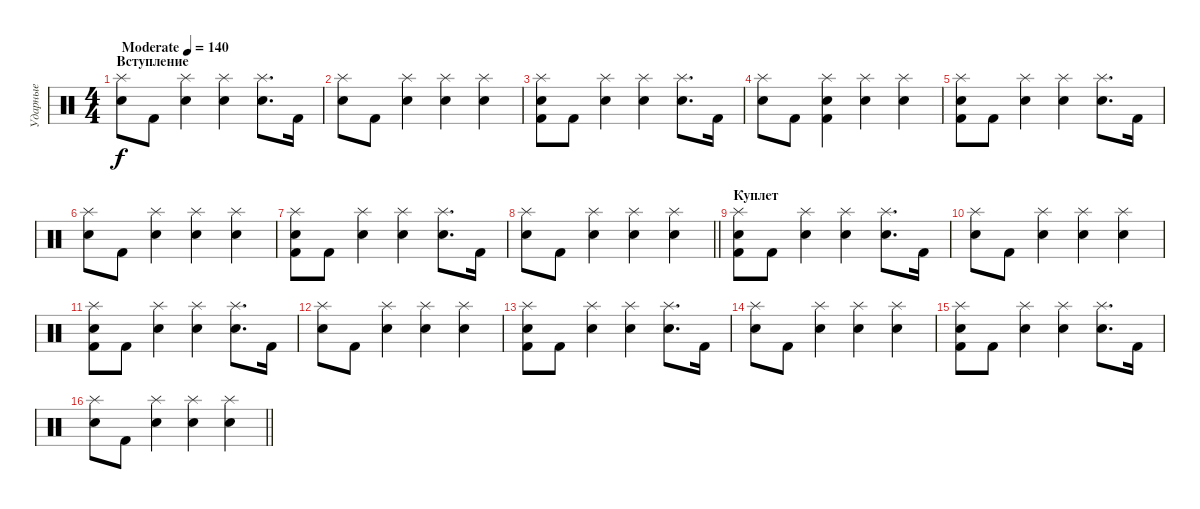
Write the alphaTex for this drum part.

\track ("Ударные" "Ударные") {instrument percussion}
\staff {score}
\articulation defaults
\ts (4 4)
\section ("" "Вступление")
\tempo (140 "Moderate")
\clef neutral
\ks c
("Splash (hit)" "Electric Snare (hit)").8{dy f} "Kick (hit) 2".8 ("Splash (hit)" "Electric Snare (hit)").4 ("Splash (hit)" "Electric Snare (hit)").4 ("Splash (hit)" "Electric Snare (hit)").8{d} "Kick (hit) 2".16 |
("Splash (hit)" "Electric Snare (hit)").8 "Kick (hit) 2".8 ("Splash (hit)" "Electric Snare (hit)").4 ("Splash (hit)" "Electric Snare (hit)").4 ("Splash (hit)" "Electric Snare (hit)").4 |
("Splash (hit)" "Electric Snare (hit)" "Kick (hit) 2").8 "Kick (hit) 2".8 ("Splash (hit)" "Electric Snare (hit)").4 ("Splash (hit)" "Electric Snare (hit)").4 ("Splash (hit)" "Electric Snare (hit)").8{d} "Kick (hit) 2".16 |
("Splash (hit)" "Electric Snare (hit)").8 "Kick (hit) 2".8 ("Splash (hit)" "Electric Snare (hit)" "Kick (hit) 2").4 ("Splash (hit)" "Electric Snare (hit)").4 ("Splash (hit)" "Electric Snare (hit)").4 |
("Splash (hit)" "Electric Snare (hit)" "Kick (hit) 2").8 "Kick (hit) 2".8 ("Splash (hit)" "Electric Snare (hit)").4 ("Splash (hit)" "Electric Snare (hit)").4 ("Splash (hit)" "Electric Snare (hit)").8{d} "Kick (hit) 2".16 |
("Splash (hit)" "Electric Snare (hit)").8 "Kick (hit) 2".8 ("Splash (hit)" "Electric Snare (hit)").4 ("Splash (hit)" "Electric Snare (hit)").4 ("Splash (hit)" "Electric Snare (hit)").4 |
("Splash (hit)" "Electric Snare (hit)" "Kick (hit) 2").8 "Kick (hit) 2".8 ("Splash (hit)" "Electric Snare (hit)").4 ("Splash (hit)" "Electric Snare (hit)").4 ("Splash (hit)" "Electric Snare (hit)").8{d} "Kick (hit) 2".16 |
\barLineRight lightlight
("Splash (hit)" "Electric Snare (hit)").8 "Kick (hit) 2".8 ("Splash (hit)" "Electric Snare (hit)").4 ("Splash (hit)" "Electric Snare (hit)").4 ("Splash (hit)" "Electric Snare (hit)").4 |
\section ("" "Куплет")
("Splash (hit)" "Electric Snare (hit)" "Kick (hit) 2").8 "Kick (hit) 2".8 ("Splash (hit)" "Electric Snare (hit)").4 ("Splash (hit)" "Electric Snare (hit)").4 ("Splash (hit)" "Electric Snare (hit)").8{d} "Kick (hit) 2".16 |
("Splash (hit)" "Electric Snare (hit)").8 "Kick (hit) 2".8 ("Splash (hit)" "Electric Snare (hit)").4 ("Splash (hit)" "Electric Snare (hit)").4 ("Splash (hit)" "Electric Snare (hit)").4 |
("Splash (hit)" "Electric Snare (hit)" "Kick (hit) 2").8 "Kick (hit) 2".8 ("Splash (hit)" "Electric Snare (hit)").4 ("Splash (hit)" "Electric Snare (hit)").4 ("Splash (hit)" "Electric Snare (hit)").8{d} "Kick (hit) 2".16 |
("Splash (hit)" "Electric Snare (hit)").8 "Kick (hit) 2".8 ("Splash (hit)" "Electric Snare (hit)").4 ("Splash (hit)" "Electric Snare (hit)").4 ("Splash (hit)" "Electric Snare (hit)").4 |
("Splash (hit)" "Electric Snare (hit)" "Kick (hit) 2").8 "Kick (hit) 2".8 ("Splash (hit)" "Electric Snare (hit)").4 ("Splash (hit)" "Electric Snare (hit)").4 ("Splash (hit)" "Electric Snare (hit)").8{d} "Kick (hit) 2".16 |
("Splash (hit)" "Electric Snare (hit)").8 "Kick (hit) 2".8 ("Splash (hit)" "Electric Snare (hit)").4 ("Splash (hit)" "Electric Snare (hit)").4 ("Splash (hit)" "Electric Snare (hit)").4 |
("Splash (hit)" "Electric Snare (hit)" "Kick (hit) 2").8 "Kick (hit) 2".8 ("Splash (hit)" "Electric Snare (hit)").4 ("Splash (hit)" "Electric Snare (hit)").4 ("Splash (hit)" "Electric Snare (hit)").8{d} "Kick (hit) 2".16 |
\barLineRight lightlight
("Splash (hit)" "Electric Snare (hit)").8 "Kick (hit) 2".8 ("Splash (hit)" "Electric Snare (hit)").4 ("Splash (hit)" "Electric Snare (hit)").4 ("Splash (hit)" "Electric Snare (hit)").4
